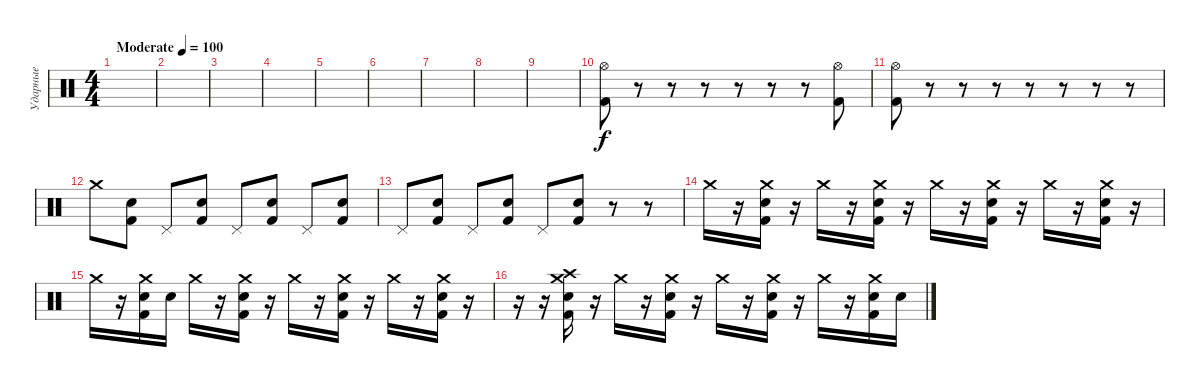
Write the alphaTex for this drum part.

\track ("Ударные" "Ударные") {instrument percussion}
\staff {score}
\articulation defaults
\ts (4 4)
\tempo (100 "Moderate")
\clef neutral
\ks c
|
|
|
|
|
|
|
|
|
("Kick (hit) 2" "Hi-Hat (open)").8 r.8 r.8 r.8 r.8 r.8 r.8 ("Kick (hit) 2" "Hi-Hat (open)").8 |
("Kick (hit) 2" "Hi-Hat (open)").8 r.8 r.8 r.8 r.8 r.8 r.8 r.8 |
"Crash medium (hit)".8 ("Electric Snare (hit)" "Kick (hit) 2").8 "Pedal Hi-Hat (hit)".8 ("Electric Snare (hit)" "Kick (hit) 2").8 "Pedal Hi-Hat (hit)".8 ("Electric Snare (hit)" "Kick (hit) 2").8 "Pedal Hi-Hat (hit)".8 ("Electric Snare (hit)" "Kick (hit) 2").8 |
"Pedal Hi-Hat (hit)".8 ("Electric Snare (hit)" "Kick (hit) 2").8 "Pedal Hi-Hat (hit)".8 ("Electric Snare (hit)" "Kick (hit) 2").8 "Pedal Hi-Hat (hit)".8 ("Electric Snare (hit)" "Kick (hit) 2").8 r.8 r.8 |
"Crash medium (hit)".16 r.16 ("Crash medium (hit)" "Kick (hit) 2" "Electric Snare (hit)").16 r.16 "Crash medium (hit)".16 r.16 ("Crash medium (hit)" "Kick (hit) 2" "Electric Snare (hit)").16 r.16 "Crash medium (hit)".16 r.16 ("Crash medium (hit)" "Kick (hit) 2" "Electric Snare (hit)").16 r.16 "Crash medium (hit)".16 r.16 ("Crash medium (hit)" "Kick (hit) 2" "Electric Snare (hit)").16 r.16 |
"Crash medium (hit)".16 r.16 ("Crash medium (hit)" "Kick (hit) 2" "Electric Snare (hit)").16 "Electric Snare (hit)".16 "Crash medium (hit)".16 r.16 ("Crash medium (hit)" "Kick (hit) 2" "Electric Snare (hit)").16 r.16 "Crash medium (hit)".16 r.16 ("Crash medium (hit)" "Kick (hit) 2" "Electric Snare (hit)").16 r.16 "Crash medium (hit)".16 r.16 ("Crash medium (hit)" "Kick (hit) 2" "Electric Snare (hit)").16 r.16 |
r.16 r.16 ("Crash medium (hit)" "Kick (hit) 2" "Electric Snare (hit)" "Crash high (hit)").16 r.16 "Crash medium (hit)".16 r.16 ("Crash medium (hit)" "Kick (hit) 2" "Electric Snare (hit)").16 r.16 "Crash medium (hit)".16 r.16 ("Crash medium (hit)" "Kick (hit) 2" "Electric Snare (hit)").16 r.16 "Crash medium (hit)".16 r.16 ("Crash medium (hit)" "Kick (hit) 2" "Electric Snare (hit)").16 "Electric Snare (hit)".16
